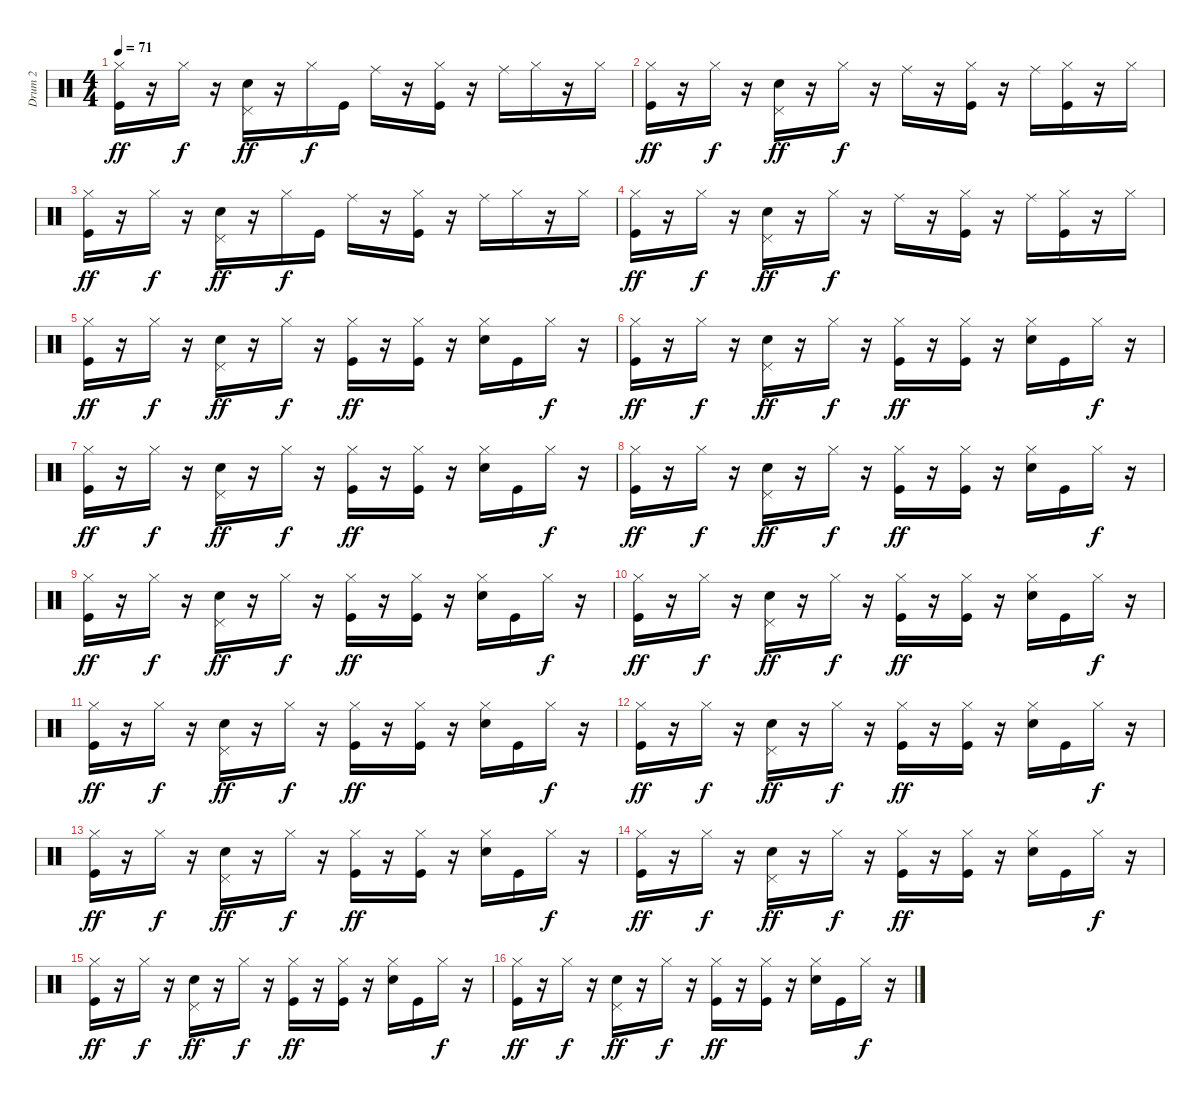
\track ("Drum 2" "Drum 2") {instrument percussion}
\staff {score}
\articulation defaults
\ts (4 4)
\tempo 71
\clef neutral
\ks c
("Hi-Hat (closed)" "Kick (hit)").16{dy ff} r.16 "Hi-Hat (closed)".16{dy f} r.16 ("Pedal Hi-Hat (hit)" "Snare (hit) 2").16{dy ff} r.16 "Hi-Hat (closed)".16{dy f} "Kick (hit)".16 "Ride (middle)".16 r.16 ("Hi-Hat (closed)" "Kick (hit)").16 r.16 "Ride (middle)".16 "Hi-Hat (closed)".16 r.16 "Hi-Hat (closed)".16 |
("Hi-Hat (closed)" "Kick (hit)").16{dy ff} r.16 "Hi-Hat (closed)".16{dy f} r.16 ("Pedal Hi-Hat (hit)" "Snare (hit) 2").16{dy ff} r.16 "Hi-Hat (closed)".16{dy f} r.16 "Ride (middle)".16 r.16 ("Hi-Hat (closed)" "Kick (hit)").16 r.16 "Ride (middle)".16 ("Hi-Hat (closed)" "Kick (hit)").16 r.16 "Hi-Hat (closed)".16 |
("Hi-Hat (closed)" "Kick (hit)").16{dy ff} r.16 "Hi-Hat (closed)".16{dy f} r.16 ("Pedal Hi-Hat (hit)" "Snare (hit) 2").16{dy ff} r.16 "Hi-Hat (closed)".16{dy f} "Kick (hit)".16 "Ride (middle)".16 r.16 ("Hi-Hat (closed)" "Kick (hit)").16 r.16 "Ride (middle)".16 "Hi-Hat (closed)".16 r.16 "Hi-Hat (closed)".16 |
("Hi-Hat (closed)" "Kick (hit)").16{dy ff} r.16 "Hi-Hat (closed)".16{dy f} r.16 ("Pedal Hi-Hat (hit)" "Snare (hit) 2").16{dy ff} r.16 "Hi-Hat (closed)".16{dy f} r.16 "Ride (middle)".16 r.16 ("Hi-Hat (closed)" "Kick (hit)").16 r.16 "Ride (middle)".16 ("Hi-Hat (closed)" "Kick (hit)").16 r.16 "Hi-Hat (closed)".16 |
("Hi-Hat (closed)" "Kick (hit)").16{dy ff} r.16 "Hi-Hat (closed)".16{dy f} r.16 ("Pedal Hi-Hat (hit)" "Snare (hit) 2").16{dy ff} r.16 "Hi-Hat (closed)".16{dy f} r.16 ("Hi-Hat (closed)" "Kick (hit)").16{dy ff} r.16 ("Hi-Hat (closed)" "Kick (hit)").16 r.16 ("Hi-Hat (closed)" "Snare (hit) 2").16 "Kick (hit)".16 "Hi-Hat (closed)".16{dy f} r.16 |
("Hi-Hat (closed)" "Kick (hit)").16{dy ff} r.16 "Hi-Hat (closed)".16{dy f} r.16 ("Pedal Hi-Hat (hit)" "Snare (hit) 2").16{dy ff} r.16 "Hi-Hat (closed)".16{dy f} r.16 ("Hi-Hat (closed)" "Kick (hit)").16{dy ff} r.16 ("Hi-Hat (closed)" "Kick (hit)").16 r.16 ("Hi-Hat (closed)" "Snare (hit) 2").16 "Kick (hit)".16 "Hi-Hat (closed)".16{dy f} r.16 |
("Hi-Hat (closed)" "Kick (hit)").16{dy ff} r.16 "Hi-Hat (closed)".16{dy f} r.16 ("Pedal Hi-Hat (hit)" "Snare (hit) 2").16{dy ff} r.16 "Hi-Hat (closed)".16{dy f} r.16 ("Hi-Hat (closed)" "Kick (hit)").16{dy ff} r.16 ("Hi-Hat (closed)" "Kick (hit)").16 r.16 ("Hi-Hat (closed)" "Snare (hit) 2").16 "Kick (hit)".16 "Hi-Hat (closed)".16{dy f} r.16 |
("Hi-Hat (closed)" "Kick (hit)").16{dy ff} r.16 "Hi-Hat (closed)".16{dy f} r.16 ("Pedal Hi-Hat (hit)" "Snare (hit) 2").16{dy ff} r.16 "Hi-Hat (closed)".16{dy f} r.16 ("Hi-Hat (closed)" "Kick (hit)").16{dy ff} r.16 ("Hi-Hat (closed)" "Kick (hit)").16 r.16 ("Hi-Hat (closed)" "Snare (hit) 2").16 "Kick (hit)".16 "Hi-Hat (closed)".16{dy f} r.16 |
("Hi-Hat (closed)" "Kick (hit)").16{dy ff} r.16 "Hi-Hat (closed)".16{dy f} r.16 ("Pedal Hi-Hat (hit)" "Snare (hit) 2").16{dy ff} r.16 "Hi-Hat (closed)".16{dy f} r.16 ("Hi-Hat (closed)" "Kick (hit)").16{dy ff} r.16 ("Hi-Hat (closed)" "Kick (hit)").16 r.16 ("Hi-Hat (closed)" "Snare (hit) 2").16 "Kick (hit)".16 "Hi-Hat (closed)".16{dy f} r.16 |
("Hi-Hat (closed)" "Kick (hit)").16{dy ff} r.16 "Hi-Hat (closed)".16{dy f} r.16 ("Pedal Hi-Hat (hit)" "Snare (hit) 2").16{dy ff} r.16 "Hi-Hat (closed)".16{dy f} r.16 ("Hi-Hat (closed)" "Kick (hit)").16{dy ff} r.16 ("Hi-Hat (closed)" "Kick (hit)").16 r.16 ("Hi-Hat (closed)" "Snare (hit) 2").16 "Kick (hit)".16 "Hi-Hat (closed)".16{dy f} r.16 |
("Hi-Hat (closed)" "Kick (hit)").16{dy ff} r.16 "Hi-Hat (closed)".16{dy f} r.16 ("Pedal Hi-Hat (hit)" "Snare (hit) 2").16{dy ff} r.16 "Hi-Hat (closed)".16{dy f} r.16 ("Hi-Hat (closed)" "Kick (hit)").16{dy ff} r.16 ("Hi-Hat (closed)" "Kick (hit)").16 r.16 ("Hi-Hat (closed)" "Snare (hit) 2").16 "Kick (hit)".16 "Hi-Hat (closed)".16{dy f} r.16 |
("Hi-Hat (closed)" "Kick (hit)").16{dy ff} r.16 "Hi-Hat (closed)".16{dy f} r.16 ("Pedal Hi-Hat (hit)" "Snare (hit) 2").16{dy ff} r.16 "Hi-Hat (closed)".16{dy f} r.16 ("Hi-Hat (closed)" "Kick (hit)").16{dy ff} r.16 ("Hi-Hat (closed)" "Kick (hit)").16 r.16 ("Hi-Hat (closed)" "Snare (hit) 2").16 "Kick (hit)".16 "Hi-Hat (closed)".16{dy f} r.16 |
("Hi-Hat (closed)" "Kick (hit)").16{dy ff} r.16 "Hi-Hat (closed)".16{dy f} r.16 ("Pedal Hi-Hat (hit)" "Snare (hit) 2").16{dy ff} r.16 "Hi-Hat (closed)".16{dy f} r.16 ("Hi-Hat (closed)" "Kick (hit)").16{dy ff} r.16 ("Hi-Hat (closed)" "Kick (hit)").16 r.16 ("Hi-Hat (closed)" "Snare (hit) 2").16 "Kick (hit)".16 "Hi-Hat (closed)".16{dy f} r.16 |
("Hi-Hat (closed)" "Kick (hit)").16{dy ff} r.16 "Hi-Hat (closed)".16{dy f} r.16 ("Pedal Hi-Hat (hit)" "Snare (hit) 2").16{dy ff} r.16 "Hi-Hat (closed)".16{dy f} r.16 ("Hi-Hat (closed)" "Kick (hit)").16{dy ff} r.16 ("Hi-Hat (closed)" "Kick (hit)").16 r.16 ("Hi-Hat (closed)" "Snare (hit) 2").16 "Kick (hit)".16 "Hi-Hat (closed)".16{dy f} r.16 |
("Hi-Hat (closed)" "Kick (hit)").16{dy ff} r.16 "Hi-Hat (closed)".16{dy f} r.16 ("Pedal Hi-Hat (hit)" "Snare (hit) 2").16{dy ff} r.16 "Hi-Hat (closed)".16{dy f} r.16 ("Hi-Hat (closed)" "Kick (hit)").16{dy ff} r.16 ("Hi-Hat (closed)" "Kick (hit)").16 r.16 ("Hi-Hat (closed)" "Snare (hit) 2").16 "Kick (hit)".16 "Hi-Hat (closed)".16{dy f} r.16 |
("Hi-Hat (closed)" "Kick (hit)").16{dy ff} r.16 "Hi-Hat (closed)".16{dy f} r.16 ("Pedal Hi-Hat (hit)" "Snare (hit) 2").16{dy ff} r.16 "Hi-Hat (closed)".16{dy f} r.16 ("Hi-Hat (closed)" "Kick (hit)").16{dy ff} r.16 ("Hi-Hat (closed)" "Kick (hit)").16 r.16 ("Hi-Hat (closed)" "Snare (hit) 2").16 "Kick (hit)".16 "Hi-Hat (closed)".16{dy f} r.16
